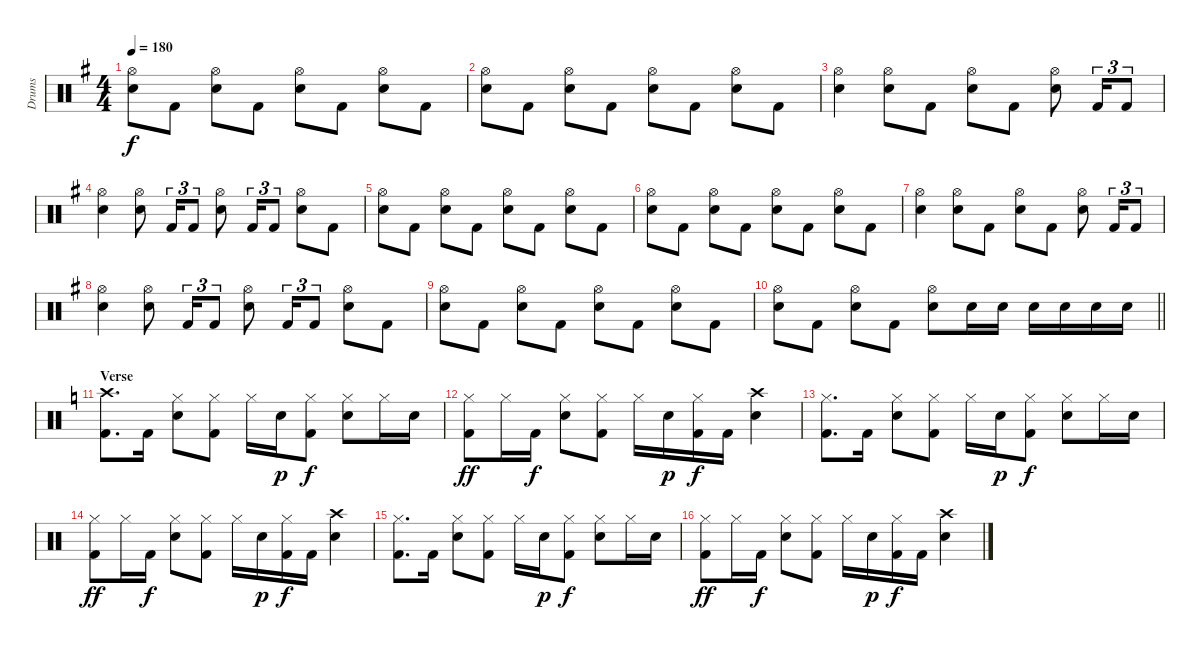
\track ("Drums" "Drums") {instrument percussion}
\staff {score}
\articulation defaults
\ts (4 4)
\tempo 180
\clef neutral
\ks g
("Hi-Hat (open)" "Snare (hit) 2").8{dy f} "Kick (hit) 2".8 ("Hi-Hat (open)" "Snare (hit) 2").8 "Kick (hit) 2".8 ("Hi-Hat (open)" "Snare (hit) 2").8 "Kick (hit) 2".8 ("Hi-Hat (open)" "Snare (hit) 2").8 "Kick (hit) 2".8 |
("Hi-Hat (open)" "Snare (hit) 2").8 "Kick (hit) 2".8 ("Hi-Hat (open)" "Snare (hit) 2").8 "Kick (hit) 2".8 ("Hi-Hat (open)" "Snare (hit) 2").8 "Kick (hit) 2".8 ("Hi-Hat (open)" "Snare (hit) 2").8 "Kick (hit) 2".8 |
("Hi-Hat (open)" "Snare (hit) 2").4 ("Hi-Hat (open)" "Snare (hit) 2").8 "Kick (hit) 2".8 ("Hi-Hat (open)" "Snare (hit) 2").8 "Kick (hit) 2".8 ("Hi-Hat (open)" "Snare (hit) 2").8 "Kick (hit) 2".16{tu (3 2)} "Kick (hit) 2".8{tu (3 2)} |
("Hi-Hat (open)" "Snare (hit) 2").4 ("Hi-Hat (open)" "Snare (hit) 2").8 "Kick (hit) 2".16{tu (3 2)} "Kick (hit) 2".8{tu (3 2)} ("Hi-Hat (open)" "Snare (hit) 2").8 "Kick (hit) 2".16{tu (3 2)} "Kick (hit) 2".8{tu (3 2)} ("Hi-Hat (open)" "Snare (hit) 2").8 "Kick (hit) 2".8 |
("Hi-Hat (open)" "Snare (hit) 2").8 "Kick (hit) 2".8 ("Hi-Hat (open)" "Snare (hit) 2").8 "Kick (hit) 2".8 ("Hi-Hat (open)" "Snare (hit) 2").8 "Kick (hit) 2".8 ("Hi-Hat (open)" "Snare (hit) 2").8 "Kick (hit) 2".8 |
("Hi-Hat (open)" "Snare (hit) 2").8 "Kick (hit) 2".8 ("Hi-Hat (open)" "Snare (hit) 2").8 "Kick (hit) 2".8 ("Hi-Hat (open)" "Snare (hit) 2").8 "Kick (hit) 2".8 ("Hi-Hat (open)" "Snare (hit) 2").8 "Kick (hit) 2".8 |
("Hi-Hat (open)" "Snare (hit) 2").4 ("Hi-Hat (open)" "Snare (hit) 2").8 "Kick (hit) 2".8 ("Hi-Hat (open)" "Snare (hit) 2").8 "Kick (hit) 2".8 ("Hi-Hat (open)" "Snare (hit) 2").8 "Kick (hit) 2".16{tu (3 2)} "Kick (hit) 2".8{tu (3 2)} |
("Hi-Hat (open)" "Snare (hit) 2").4 ("Hi-Hat (open)" "Snare (hit) 2").8 "Kick (hit) 2".16{tu (3 2)} "Kick (hit) 2".8{tu (3 2)} ("Hi-Hat (open)" "Snare (hit) 2").8 "Kick (hit) 2".16{tu (3 2)} "Kick (hit) 2".8{tu (3 2)} ("Hi-Hat (open)" "Snare (hit) 2").8 "Kick (hit) 2".8 |
("Hi-Hat (open)" "Snare (hit) 2").8 "Kick (hit) 2".8 ("Hi-Hat (open)" "Snare (hit) 2").8 "Kick (hit) 2".8 ("Hi-Hat (open)" "Snare (hit) 2").8 "Kick (hit) 2".8 ("Hi-Hat (open)" "Snare (hit) 2").8 "Kick (hit) 2".8 |
\barLineRight lightlight
("Hi-Hat (open)" "Snare (hit) 2").8 "Kick (hit) 2".8 ("Hi-Hat (open)" "Snare (hit) 2").8 "Kick (hit) 2".8 ("Hi-Hat (open)" "Snare (hit) 2").8 "Snare (hit) 2".16 "Snare (hit) 2".16 "Snare (hit) 2".16 "Snare (hit) 2".16 "Snare (hit) 2".16 "Snare (hit) 2".16 |
\section ("" "Verse")
\ks c
("Crash high (hit)" "Kick (hit) 2").8{d} "Kick (hit) 2".16 ("Hi-Hat (closed)" "Snare (hit) 2").8 ("Hi-Hat (closed)" "Kick (hit) 2").8 "Hi-Hat (closed)".16 "Snare (hit) 2".16{dy p} ("Hi-Hat (closed)" "Kick (hit) 2").8{dy f} ("Hi-Hat (closed)" "Snare (hit) 2").8 "Hi-Hat (closed)".16 "Snare (hit) 2".16 |
("Hi-Hat (closed)" "Kick (hit) 2").8{dy ff} "Hi-Hat (closed)".16 "Kick (hit) 2".16{dy f} ("Hi-Hat (closed)" "Snare (hit) 2").8 ("Hi-Hat (closed)" "Kick (hit) 2").8 "Hi-Hat (closed)".16 "Snare (hit) 2".16{dy p} ("Hi-Hat (closed)" "Kick (hit) 2").16{dy f} "Kick (hit) 2".16 ("Crash high (hit)" "Snare (hit) 2").4 |
("Hi-Hat (closed)" "Kick (hit) 2").8{d} "Kick (hit) 2".16 ("Hi-Hat (closed)" "Snare (hit) 2").8 ("Hi-Hat (closed)" "Kick (hit) 2").8 "Hi-Hat (closed)".16 "Snare (hit) 2".16{dy p} ("Hi-Hat (closed)" "Kick (hit) 2").8{dy f} ("Hi-Hat (closed)" "Snare (hit) 2").8 "Hi-Hat (closed)".16 "Snare (hit) 2".16 |
("Hi-Hat (closed)" "Kick (hit) 2").8{dy ff} "Hi-Hat (closed)".16 "Kick (hit) 2".16{dy f} ("Hi-Hat (closed)" "Snare (hit) 2").8 ("Hi-Hat (closed)" "Kick (hit) 2").8 "Hi-Hat (closed)".16 "Snare (hit) 2".16{dy p} ("Hi-Hat (closed)" "Kick (hit) 2").16{dy f} "Kick (hit) 2".16 ("Crash high (hit)" "Snare (hit) 2").4 |
("Hi-Hat (closed)" "Kick (hit) 2").8{d} "Kick (hit) 2".16 ("Hi-Hat (closed)" "Snare (hit) 2").8 ("Hi-Hat (closed)" "Kick (hit) 2").8 "Hi-Hat (closed)".16 "Snare (hit) 2".16{dy p} ("Hi-Hat (closed)" "Kick (hit) 2").8{dy f} ("Hi-Hat (closed)" "Snare (hit) 2").8 "Hi-Hat (closed)".16 "Snare (hit) 2".16 |
("Hi-Hat (closed)" "Kick (hit) 2").8{dy ff} "Hi-Hat (closed)".16 "Kick (hit) 2".16{dy f} ("Hi-Hat (closed)" "Snare (hit) 2").8 ("Hi-Hat (closed)" "Kick (hit) 2").8 "Hi-Hat (closed)".16 "Snare (hit) 2".16{dy p} ("Hi-Hat (closed)" "Kick (hit) 2").16{dy f} "Kick (hit) 2".16 ("Crash high (hit)" "Snare (hit) 2").4
